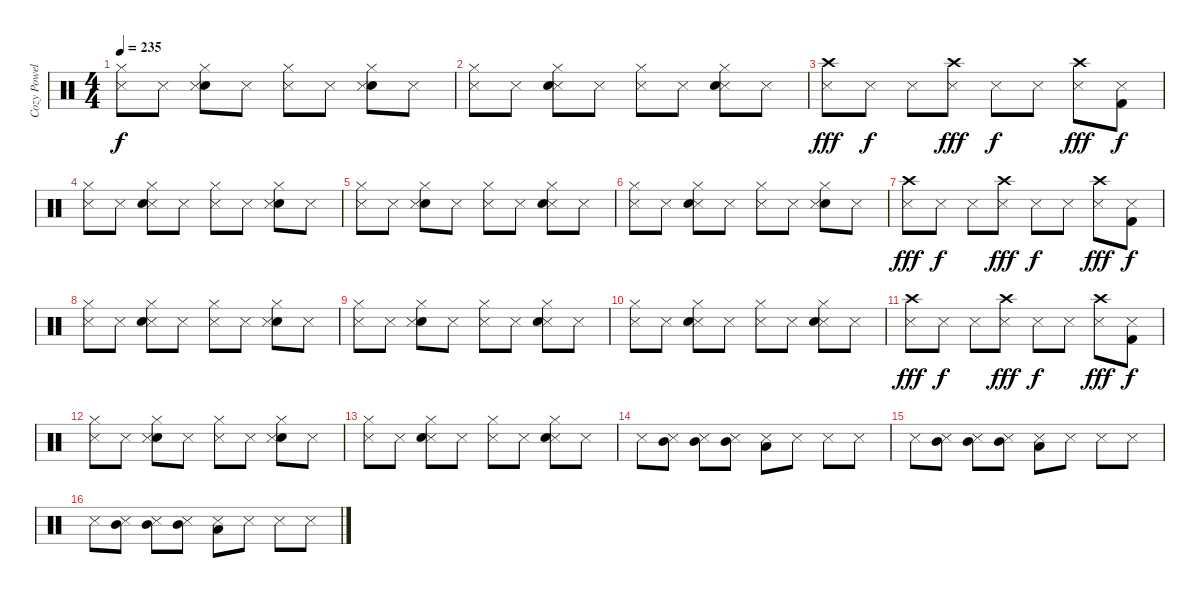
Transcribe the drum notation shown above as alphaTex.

\track ("Cozy Powell" "Cozy Powel") {instrument percussion}
\staff {score}
\articulation defaults
\ts (4 4)
\tempo 235
\clef neutral
\ks c
("Metronome (hit)" "Hi-Hat (closed)").8{dy f} "Metronome (hit)".8 ("Electric Snare (hit)" "Hi-Hat (closed)" "Metronome (hit)").8 "Metronome (hit)".8 ("Metronome (hit)" "Hi-Hat (closed)").8 "Metronome (hit)".8 ("Electric Snare (hit)" "Hi-Hat (closed)" "Metronome (hit)").8 "Metronome (hit)".8 |
("Hi-Hat (closed)" "Metronome (hit)").8 "Metronome (hit)".8 ("Metronome (hit)" "Electric Snare (hit)" "Hi-Hat (closed)").8 "Metronome (hit)".8 ("Hi-Hat (closed)" "Metronome (hit)").8 "Metronome (hit)".8 ("Hi-Hat (closed)" "Metronome (hit)" "Electric Snare (hit)").8 "Metronome (hit)".8 |
("Crash high (hit)" "Metronome (hit)").8{dy fff} "Metronome (hit)".8{dy f} "Metronome (hit)".8 ("Crash high (hit)" "Metronome (hit)").8{dy fff} "Metronome (hit)".8{dy f} "Metronome (hit)".8 ("Metronome (hit)" "Crash high (hit)").8{dy fff} ("Kick (hit) 2" "Metronome (hit)").8{dy f} |
("Hi-Hat (closed)" "Metronome (hit)").8 "Metronome (hit)".8 ("Metronome (hit)" "Hi-Hat (closed)" "Electric Snare (hit)").8 "Metronome (hit)".8 ("Hi-Hat (closed)" "Metronome (hit)").8 "Metronome (hit)".8 ("Electric Snare (hit)" "Hi-Hat (closed)" "Metronome (hit)").8 "Metronome (hit)".8 |
("Hi-Hat (closed)" "Metronome (hit)").8 "Metronome (hit)".8 ("Electric Snare (hit)" "Metronome (hit)" "Hi-Hat (closed)").8 "Metronome (hit)".8 ("Hi-Hat (closed)" "Metronome (hit)").8 "Metronome (hit)".8 ("Metronome (hit)" "Electric Snare (hit)" "Hi-Hat (closed)").8 "Metronome (hit)".8 |
("Metronome (hit)" "Hi-Hat (closed)").8 "Metronome (hit)".8 ("Hi-Hat (closed)" "Metronome (hit)" "Electric Snare (hit)").8 "Metronome (hit)".8 ("Metronome (hit)" "Hi-Hat (closed)").8 "Metronome (hit)".8 ("Electric Snare (hit)" "Metronome (hit)" "Hi-Hat (closed)").8 "Metronome (hit)".8 |
("Crash high (hit)" "Metronome (hit)").8{dy fff} "Metronome (hit)".8{dy f} "Metronome (hit)".8 ("Metronome (hit)" "Crash high (hit)").8{dy fff} "Metronome (hit)".8{dy f} "Metronome (hit)".8 ("Crash high (hit)" "Metronome (hit)").8{dy fff} ("Metronome (hit)" "Kick (hit) 2").8{dy f} |
("Metronome (hit)" "Hi-Hat (closed)").8 "Metronome (hit)".8 ("Metronome (hit)" "Hi-Hat (closed)" "Electric Snare (hit)").8 "Metronome (hit)".8 ("Hi-Hat (closed)" "Metronome (hit)").8 "Metronome (hit)".8 ("Hi-Hat (closed)" "Electric Snare (hit)" "Metronome (hit)").8 "Metronome (hit)".8 |
("Hi-Hat (closed)" "Metronome (hit)").8 "Metronome (hit)".8 ("Electric Snare (hit)" "Metronome (hit)" "Hi-Hat (closed)").8 "Metronome (hit)".8 ("Hi-Hat (closed)" "Metronome (hit)").8 "Metronome (hit)".8 ("Metronome (hit)" "Hi-Hat (closed)" "Electric Snare (hit)").8 "Metronome (hit)".8 |
("Metronome (hit)" "Hi-Hat (closed)").8 "Metronome (hit)".8 ("Metronome (hit)" "Electric Snare (hit)" "Hi-Hat (closed)").8 "Metronome (hit)".8 ("Hi-Hat (closed)" "Metronome (hit)").8 "Metronome (hit)".8 ("Metronome (hit)" "Electric Snare (hit)" "Hi-Hat (closed)").8 "Metronome (hit)".8 |
("Crash high (hit)" "Metronome (hit)").8{dy fff} "Metronome (hit)".8{dy f} "Metronome (hit)".8 ("Crash high (hit)" "Metronome (hit)").8{dy fff} "Metronome (hit)".8{dy f} "Metronome (hit)".8 ("Crash high (hit)" "Metronome (hit)").8{dy fff} ("Metronome (hit)" "Kick (hit) 2").8{dy f} |
("Hi-Hat (closed)" "Metronome (hit)").8 "Metronome (hit)".8 ("Hi-Hat (closed)" "Electric Snare (hit)" "Metronome (hit)").8 "Metronome (hit)".8 ("Metronome (hit)" "Hi-Hat (closed)").8 "Metronome (hit)".8 ("Electric Snare (hit)" "Hi-Hat (closed)" "Metronome (hit)").8 "Metronome (hit)".8 |
("Metronome (hit)" "Hi-Hat (closed)").8 "Metronome (hit)".8 ("Hi-Hat (closed)" "Metronome (hit)" "Electric Snare (hit)").8 "Metronome (hit)".8 ("Metronome (hit)" "Hi-Hat (closed)").8 "Metronome (hit)".8 ("Hi-Hat (closed)" "Metronome (hit)" "Electric Snare (hit)").8 "Metronome (hit)".8 |
"Metronome (hit)".8 ("Mid Tom (hit)" "Metronome (hit)").8 ("Mid Tom (hit)" "Metronome (hit)").8 ("Mid Tom (hit)" "Metronome (hit)").8 ("Low Tom (hit)" "Metronome (hit)").8 "Metronome (hit)".8 "Metronome (hit)".8 "Metronome (hit)".8 |
"Metronome (hit)".8 ("Mid Tom (hit)" "Metronome (hit)").8 ("Mid Tom (hit)" "Metronome (hit)").8 ("Metronome (hit)" "Mid Tom (hit)").8 ("Low Tom (hit)" "Metronome (hit)").8 "Metronome (hit)".8 "Metronome (hit)".8 "Metronome (hit)".8 |
"Metronome (hit)".8 ("Metronome (hit)" "Mid Tom (hit)").8 ("Mid Tom (hit)" "Metronome (hit)").8 ("Mid Tom (hit)" "Metronome (hit)").8 ("Metronome (hit)" "Low Tom (hit)").8 "Metronome (hit)".8 "Metronome (hit)".8 "Metronome (hit)".8
